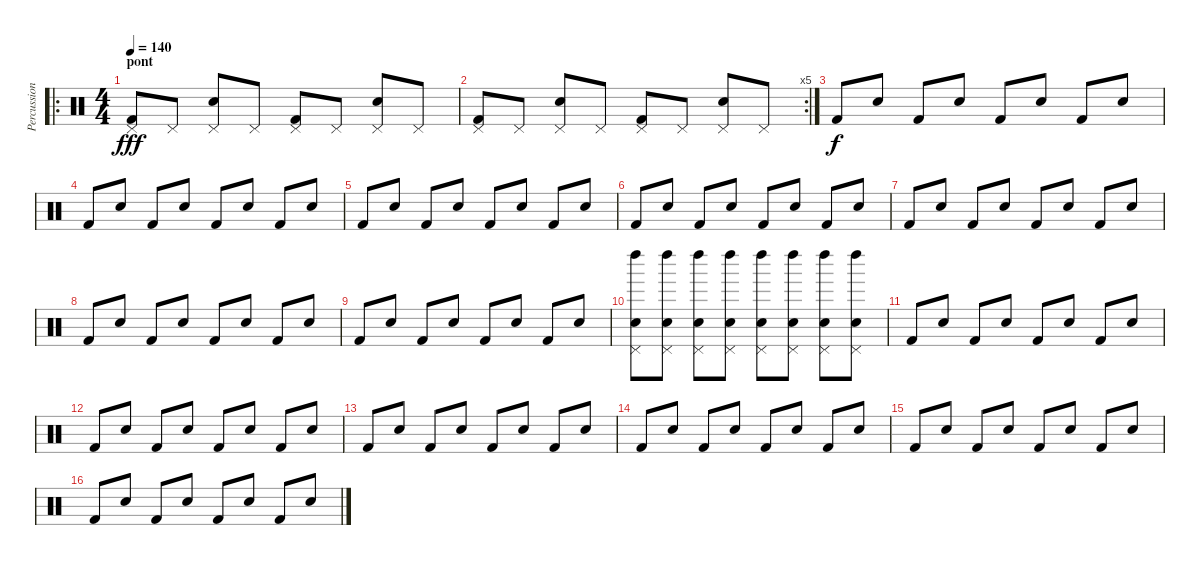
\track ("Percussions" "Percussion") {instrument percussion}
\staff {score}
\articulation defaults
\ro
\ts (4 4)
\section ("" "pont")
\tempo 140
\clef neutral
\ks c
("Pedal Hi-Hat (hit)" "Kick (hit) 2").8{dy fff} "Pedal Hi-Hat (hit)".8 ("Pedal Hi-Hat (hit)" "Electric Snare (hit)").8 "Pedal Hi-Hat (hit)".8 ("Pedal Hi-Hat (hit)" "Kick (hit) 2").8 "Pedal Hi-Hat (hit)".8 ("Pedal Hi-Hat (hit)" "Electric Snare (hit)").8 "Pedal Hi-Hat (hit)".8 |
\rc 5
("Pedal Hi-Hat (hit)" "Kick (hit) 2").8 "Pedal Hi-Hat (hit)".8 ("Pedal Hi-Hat (hit)" "Electric Snare (hit)").8 "Pedal Hi-Hat (hit)".8 ("Pedal Hi-Hat (hit)" "Kick (hit) 2").8 "Pedal Hi-Hat (hit)".8 ("Pedal Hi-Hat (hit)" "Electric Snare (hit)").8 "Pedal Hi-Hat (hit)".8 |
"Kick (hit) 2".8{dy f} "Electric Snare (hit)".8 "Kick (hit) 2".8 "Electric Snare (hit)".8 "Kick (hit) 2".8 "Electric Snare (hit)".8 "Kick (hit) 2".8 "Electric Snare (hit)".8 |
"Kick (hit) 2".8 "Electric Snare (hit)".8 "Kick (hit) 2".8 "Electric Snare (hit)".8 "Kick (hit) 2".8 "Electric Snare (hit)".8 "Kick (hit) 2".8 "Electric Snare (hit)".8 |
"Kick (hit) 2".8 "Electric Snare (hit)".8 "Kick (hit) 2".8 "Electric Snare (hit)".8 "Kick (hit) 2".8 "Electric Snare (hit)".8 "Kick (hit) 2".8 "Electric Snare (hit)".8 |
"Kick (hit) 2".8 "Electric Snare (hit)".8 "Kick (hit) 2".8 "Electric Snare (hit)".8 "Kick (hit) 2".8 "Electric Snare (hit)".8 "Kick (hit) 2".8 "Electric Snare (hit)".8 |
"Kick (hit) 2".8 "Electric Snare (hit)".8 "Kick (hit) 2".8 "Electric Snare (hit)".8 "Kick (hit) 2".8 "Electric Snare (hit)".8 "Kick (hit) 2".8 "Electric Snare (hit)".8 |
"Kick (hit) 2".8 "Electric Snare (hit)".8 "Kick (hit) 2".8 "Electric Snare (hit)".8 "Kick (hit) 2".8 "Electric Snare (hit)".8 "Kick (hit) 2".8 "Electric Snare (hit)".8 |
"Kick (hit) 2".8 "Electric Snare (hit)".8 "Kick (hit) 2".8 "Electric Snare (hit)".8 "Kick (hit) 2".8 "Electric Snare (hit)".8 "Kick (hit) 2".8 "Electric Snare (hit)".8 |
("Pedal Hi-Hat (hit)" "Left Maraca (hit)" "Electric Snare (hit)").8 ("Pedal Hi-Hat (hit)" "Left Maraca (hit)" "Electric Snare (hit)").8 ("Pedal Hi-Hat (hit)" "Left Maraca (hit)" "Electric Snare (hit)").8 ("Pedal Hi-Hat (hit)" "Left Maraca (hit)" "Electric Snare (hit)").8 ("Pedal Hi-Hat (hit)" "Left Maraca (hit)" "Electric Snare (hit)").8 ("Pedal Hi-Hat (hit)" "Left Maraca (hit)" "Electric Snare (hit)").8 ("Pedal Hi-Hat (hit)" "Left Maraca (hit)" "Electric Snare (hit)").8 ("Pedal Hi-Hat (hit)" "Left Maraca (hit)" "Electric Snare (hit)").8 |
"Kick (hit) 2".8 "Electric Snare (hit)".8 "Kick (hit) 2".8 "Electric Snare (hit)".8 "Kick (hit) 2".8 "Electric Snare (hit)".8 "Kick (hit) 2".8 "Electric Snare (hit)".8 |
"Kick (hit) 2".8 "Electric Snare (hit)".8 "Kick (hit) 2".8 "Electric Snare (hit)".8 "Kick (hit) 2".8 "Electric Snare (hit)".8 "Kick (hit) 2".8 "Electric Snare (hit)".8 |
"Kick (hit) 2".8 "Electric Snare (hit)".8 "Kick (hit) 2".8 "Electric Snare (hit)".8 "Kick (hit) 2".8 "Electric Snare (hit)".8 "Kick (hit) 2".8 "Electric Snare (hit)".8 |
"Kick (hit) 2".8 "Electric Snare (hit)".8 "Kick (hit) 2".8 "Electric Snare (hit)".8 "Kick (hit) 2".8 "Electric Snare (hit)".8 "Kick (hit) 2".8 "Electric Snare (hit)".8 |
"Kick (hit) 2".8 "Electric Snare (hit)".8 "Kick (hit) 2".8 "Electric Snare (hit)".8 "Kick (hit) 2".8 "Electric Snare (hit)".8 "Kick (hit) 2".8 "Electric Snare (hit)".8 |
"Kick (hit) 2".8 "Electric Snare (hit)".8 "Kick (hit) 2".8 "Electric Snare (hit)".8 "Kick (hit) 2".8 "Electric Snare (hit)".8 "Kick (hit) 2".8 "Electric Snare (hit)".8
